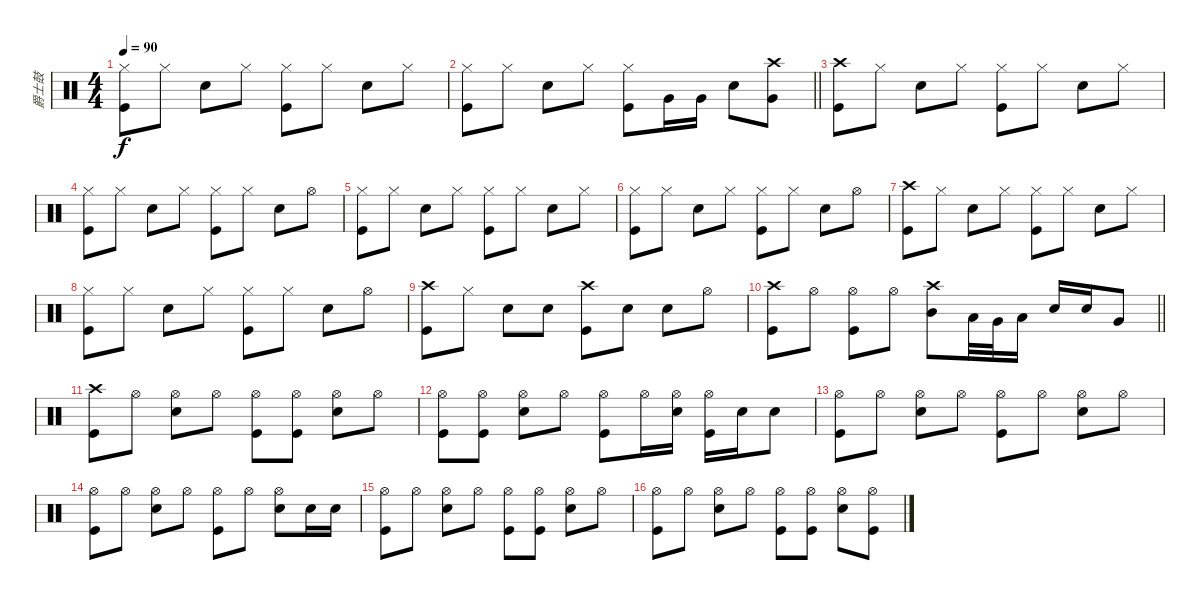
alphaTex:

\track ("爵士鼓" "爵士鼓") {instrument percussion}
\staff {score}
\articulation defaults
\ts (4 4)
\tempo 90
\clef neutral
\ks c
("Hi-Hat (closed)" "Kick (hit)").8{dy f} "Hi-Hat (closed)".8 "Snare (hit) 2".8 "Hi-Hat (closed)".8 ("Hi-Hat (closed)" "Kick (hit)").8 "Hi-Hat (closed)".8 "Snare (hit) 2".8 "Hi-Hat (closed)".8 |
\barLineRight lightlight
("Hi-Hat (closed)" "Kick (hit)").8 "Hi-Hat (closed)".8 "Snare (hit) 2".8 "Hi-Hat (closed)".8 ("Hi-Hat (closed)" "Kick (hit)").8 "Very Low Tom (hit)".16 "Very Low Tom (hit)".16 "Snare (hit) 2".8 ("Crash high (hit)" "Very Low Tom (hit)").8 |
("Crash high (hit)" "Kick (hit)").8 "Hi-Hat (closed)".8 "Snare (hit) 2".8 "Hi-Hat (closed)".8 ("Hi-Hat (closed)" "Kick (hit)").8 "Hi-Hat (closed)".8 "Snare (hit) 2".8 "Hi-Hat (closed)".8 |
("Hi-Hat (closed)" "Kick (hit)").8 "Hi-Hat (closed)".8 "Snare (hit) 2".8 "Hi-Hat (closed)".8 ("Hi-Hat (closed)" "Kick (hit)").8 "Hi-Hat (closed)".8 "Snare (hit) 2".8 "Hi-Hat (open)".8 |
("Hi-Hat (closed)" "Kick (hit)").8 "Hi-Hat (closed)".8 "Snare (hit) 2".8 "Hi-Hat (closed)".8 ("Hi-Hat (closed)" "Kick (hit)").8 "Hi-Hat (closed)".8 "Snare (hit) 2".8 "Hi-Hat (closed)".8 |
("Hi-Hat (closed)" "Kick (hit)").8 "Hi-Hat (closed)".8 "Snare (hit) 2".8 "Hi-Hat (closed)".8 ("Hi-Hat (closed)" "Kick (hit)").8 "Hi-Hat (closed)".8 "Snare (hit) 2".8 "Hi-Hat (open)".8 |
("Crash high (hit)" "Kick (hit)").8 "Hi-Hat (closed)".8 "Snare (hit) 2".8 "Hi-Hat (closed)".8 ("Hi-Hat (closed)" "Kick (hit)").8 "Hi-Hat (closed)".8 "Snare (hit) 2".8 "Hi-Hat (closed)".8 |
("Hi-Hat (closed)" "Kick (hit)").8 "Hi-Hat (closed)".8 "Snare (hit) 2".8 "Hi-Hat (closed)".8 ("Hi-Hat (closed)" "Kick (hit)").8 "Hi-Hat (closed)".8 "Snare (hit) 2".8 "Hi-Hat (open)".8 |
("Crash high (hit)" "Kick (hit)").8 "Hi-Hat (closed)".8 "Snare (hit) 2".8 "Snare (hit) 2".8 ("Crash high (hit)" "Kick (hit)").8 "Snare (hit) 2".8 "Snare (hit) 2".8 "Hi-Hat (open)".8 |
\barLineRight lightlight
("Crash high (hit)" "Kick (hit)").8 "Hi-Hat (open)".8 ("Hi-Hat (open)" "Kick (hit)").8 "Hi-Hat (open)".8 ("Crash high (hit)" "Mid Tom (hit)").8 "Low Tom (hit)".32 "Very Low Tom (hit)".32 "Low Floor Tom (hit)".16 "Snare (hit) 2".16 "Snare (hit) 2".16 "Very Low Tom (hit)".8 |
("Crash high (hit)" "Kick (hit)").8 "Hi-Hat (open)".8 ("Hi-Hat (open)" "Snare (hit) 2").8 "Hi-Hat (open)".8 ("Hi-Hat (open)" "Kick (hit)").8 ("Hi-Hat (open)" "Kick (hit)").8 ("Hi-Hat (open)" "Snare (hit) 2").8 "Hi-Hat (open)".8 |
("Hi-Hat (open)" "Kick (hit)").8 ("Hi-Hat (open)" "Kick (hit)").8 ("Hi-Hat (open)" "Snare (hit) 2").8 "Hi-Hat (open)".8 ("Hi-Hat (open)" "Kick (hit)").8 "Hi-Hat (open)".16 ("Hi-Hat (open)" "Snare (hit) 2").16 ("Hi-Hat (open)" "Kick (hit)").16 "Snare (hit) 2".16 "Snare (hit) 2".8 |
("Hi-Hat (open)" "Kick (hit)").8 "Hi-Hat (open)".8 ("Hi-Hat (open)" "Snare (hit) 2").8 "Hi-Hat (open)".8 ("Hi-Hat (open)" "Kick (hit)").8 "Hi-Hat (open)".8 ("Hi-Hat (open)" "Snare (hit) 2").8 "Hi-Hat (open)".8 |
("Hi-Hat (open)" "Kick (hit)").8 "Hi-Hat (open)".8 ("Hi-Hat (open)" "Snare (hit) 2").8 "Hi-Hat (open)".8 ("Hi-Hat (open)" "Kick (hit)").8 "Hi-Hat (open)".8 ("Hi-Hat (open)" "Snare (hit) 2").8 "Snare (hit) 2".16 "Snare (hit) 2".16 |
("Hi-Hat (open)" "Kick (hit)").8 "Hi-Hat (open)".8 ("Hi-Hat (open)" "Snare (hit) 2").8 "Hi-Hat (open)".8 ("Hi-Hat (open)" "Kick (hit)").8 ("Hi-Hat (open)" "Kick (hit)").8 ("Hi-Hat (open)" "Snare (hit) 2").8 "Hi-Hat (open)".8 |
("Hi-Hat (open)" "Kick (hit)").8 "Hi-Hat (open)".8 ("Hi-Hat (open)" "Snare (hit) 2").8 "Hi-Hat (open)".8 ("Hi-Hat (open)" "Kick (hit)").8 ("Hi-Hat (open)" "Kick (hit)").8 ("Hi-Hat (open)" "Snare (hit) 2").8 ("Hi-Hat (open)" "Kick (hit)").8
